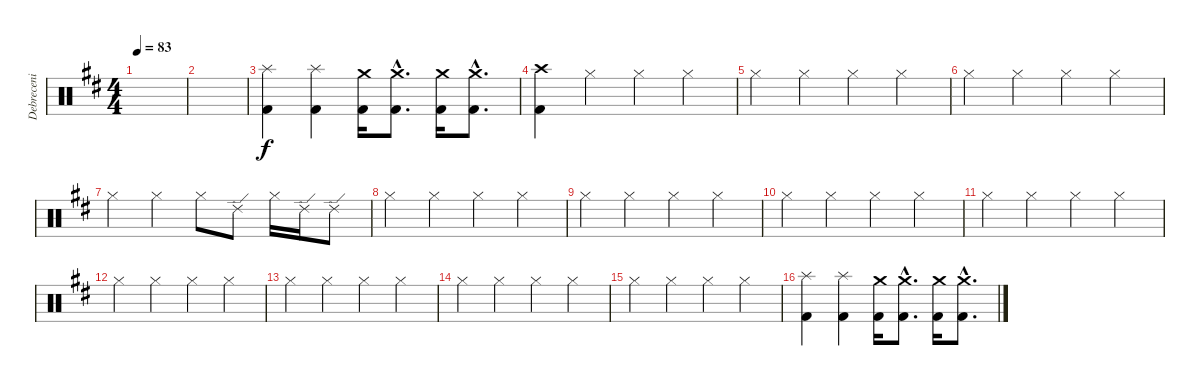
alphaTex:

\track ("Debreceni Ferenc \"Ciki\" Dob" "Debreceni ") {instrument percussion}
\staff {score}
\articulation defaults
\ts (4 4)
\tempo 83
\clef neutral
\ks d
|
|
("Splash (hit)" "Kick (hit) 2").4 ("Splash (hit)" "Kick (hit) 2").4 ("Crash medium (hit)" "Kick (hit) 2").16 ("Crash medium (hit)"{hac} "Kick (hit) 2"{hac}).8{d} ("Crash medium (hit)" "Kick (hit) 2").16 ("Crash medium (hit)"{hac} "Kick (hit) 2"{hac}).8{d} |
("Crash high (hit)" "Kick (hit) 2").4 "Hi-Hat (closed)".4 "Hi-Hat (closed)".4 "Hi-Hat (closed)".4 |
"Hi-Hat (closed)".4 "Hi-Hat (closed)".4 "Hi-Hat (closed)".4 "Hi-Hat (closed)".4 |
"Hi-Hat (closed)".4 "Hi-Hat (closed)".4 "Hi-Hat (closed)".4 "Hi-Hat (closed)".4 |
"Hi-Hat (closed)".4 "Hi-Hat (closed)".4 "Hi-Hat (closed)".8 "Ride (edge) 2".8 "Hi-Hat (closed)".16 "Ride (edge) 2".16 "Ride (edge) 2".8 |
"Hi-Hat (closed)".4 "Hi-Hat (closed)".4 "Hi-Hat (closed)".4 "Hi-Hat (closed)".4 |
"Hi-Hat (closed)".4 "Hi-Hat (closed)".4 "Hi-Hat (closed)".4 "Hi-Hat (closed)".4 |
"Hi-Hat (closed)".4 "Hi-Hat (closed)".4 "Hi-Hat (closed)".4 "Hi-Hat (closed)".4 |
"Hi-Hat (closed)".4 "Hi-Hat (closed)".4 "Hi-Hat (closed)".4 "Hi-Hat (closed)".4 |
"Hi-Hat (closed)".4 "Hi-Hat (closed)".4 "Hi-Hat (closed)".4 "Hi-Hat (closed)".4 |
"Hi-Hat (closed)".4 "Hi-Hat (closed)".4 "Hi-Hat (closed)".4 "Hi-Hat (closed)".4 |
"Hi-Hat (closed)".4 "Hi-Hat (closed)".4 "Hi-Hat (closed)".4 "Hi-Hat (closed)".4 |
"Hi-Hat (closed)".4 "Hi-Hat (closed)".4 "Hi-Hat (closed)".4 "Hi-Hat (closed)".4 |
("Splash (hit)" "Kick (hit) 2").4 ("Splash (hit)" "Kick (hit) 2").4 ("Crash medium (hit)" "Kick (hit) 2").16 ("Crash medium (hit)"{hac} "Kick (hit) 2"{hac}).8{d} ("Crash medium (hit)" "Kick (hit) 2").16 ("Crash medium (hit)"{hac} "Kick (hit) 2"{hac}).8{d}
